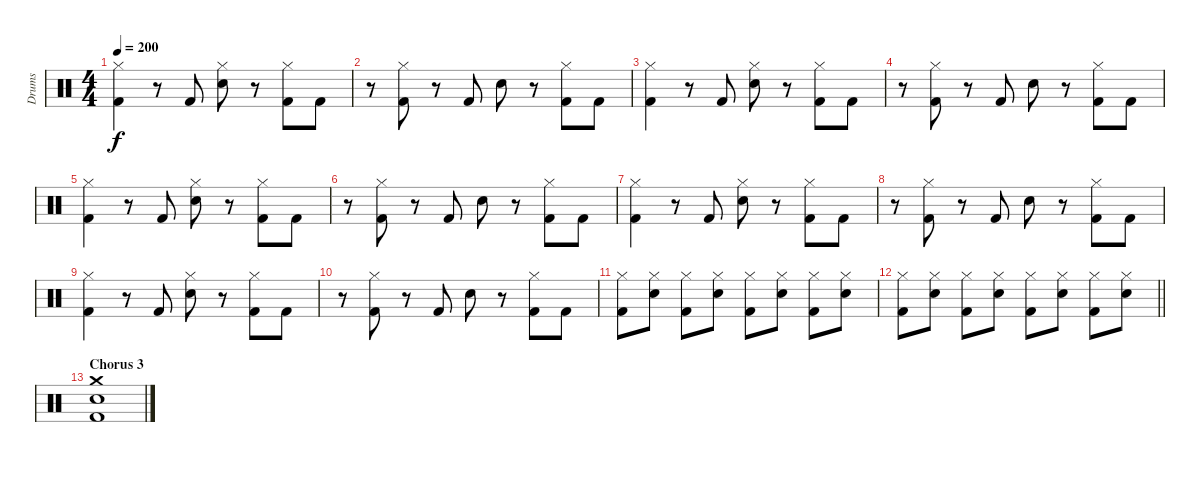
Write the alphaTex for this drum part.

\track ("Drums" "Drums") {instrument percussion}
\staff {score}
\articulation defaults
\ts (4 4)
\tempo 200
\clef neutral
\ks c
("Hi-Hat (closed)" "Kick (hit) 2").4{dy f} r.8 "Kick (hit) 2".8 ("Hi-Hat (closed)" "Snare (hit) 2").8 r.8 ("Hi-Hat (closed)" "Kick (hit) 2").8 "Kick (hit) 2".8 |
r.8 ("Hi-Hat (closed)" "Kick (hit) 2").8 r.8 "Kick (hit) 2".8 "Snare (hit) 2".8 r.8 ("Hi-Hat (closed)" "Kick (hit) 2").8 "Kick (hit) 2".8 |
("Hi-Hat (closed)" "Kick (hit) 2").4 r.8 "Kick (hit) 2".8 ("Hi-Hat (closed)" "Snare (hit) 2").8 r.8 ("Hi-Hat (closed)" "Kick (hit) 2").8 "Kick (hit) 2".8 |
r.8 ("Hi-Hat (closed)" "Kick (hit) 2").8 r.8 "Kick (hit) 2".8 "Snare (hit) 2".8 r.8 ("Hi-Hat (closed)" "Kick (hit) 2").8 "Kick (hit) 2".8 |
("Hi-Hat (closed)" "Kick (hit) 2").4 r.8 "Kick (hit) 2".8 ("Hi-Hat (closed)" "Snare (hit) 2").8 r.8 ("Hi-Hat (closed)" "Kick (hit) 2").8 "Kick (hit) 2".8 |
r.8 ("Hi-Hat (closed)" "Kick (hit) 2").8 r.8 "Kick (hit) 2".8 "Snare (hit) 2".8 r.8 ("Hi-Hat (closed)" "Kick (hit) 2").8 "Kick (hit) 2".8 |
("Hi-Hat (closed)" "Kick (hit) 2").4 r.8 "Kick (hit) 2".8 ("Hi-Hat (closed)" "Snare (hit) 2").8 r.8 ("Hi-Hat (closed)" "Kick (hit) 2").8 "Kick (hit) 2".8 |
r.8 ("Hi-Hat (closed)" "Kick (hit) 2").8 r.8 "Kick (hit) 2".8 "Snare (hit) 2".8 r.8 ("Hi-Hat (closed)" "Kick (hit) 2").8 "Kick (hit) 2".8 |
("Hi-Hat (closed)" "Kick (hit) 2").4 r.8 "Kick (hit) 2".8 ("Hi-Hat (closed)" "Snare (hit) 2").8 r.8 ("Hi-Hat (closed)" "Kick (hit) 2").8 "Kick (hit) 2".8 |
r.8 ("Hi-Hat (closed)" "Kick (hit) 2").8 r.8 "Kick (hit) 2".8 "Snare (hit) 2".8 r.8 ("Hi-Hat (closed)" "Kick (hit) 2").8 "Kick (hit) 2".8 |
("Hi-Hat (closed)" "Kick (hit) 2").8 ("Hi-Hat (closed)" "Snare (hit) 2").8 ("Hi-Hat (closed)" "Kick (hit) 2").8 ("Hi-Hat (closed)" "Snare (hit) 2").8 ("Hi-Hat (closed)" "Kick (hit) 2").8 ("Hi-Hat (closed)" "Snare (hit) 2").8 ("Hi-Hat (closed)" "Kick (hit) 2").8 ("Hi-Hat (closed)" "Snare (hit) 2").8 |
\barLineRight lightlight
("Hi-Hat (closed)" "Kick (hit) 2").8 ("Hi-Hat (closed)" "Snare (hit) 2").8 ("Hi-Hat (closed)" "Kick (hit) 2").8 ("Hi-Hat (closed)" "Snare (hit) 2").8 ("Hi-Hat (closed)" "Kick (hit) 2").8 ("Hi-Hat (closed)" "Snare (hit) 2").8 ("Hi-Hat (closed)" "Kick (hit) 2").8 ("Hi-Hat (closed)" "Snare (hit) 2").8 |
\section ("" "Chorus 3")
("Crash medium (hit)" "Kick (hit) 2" "Snare (hit) 2").1
